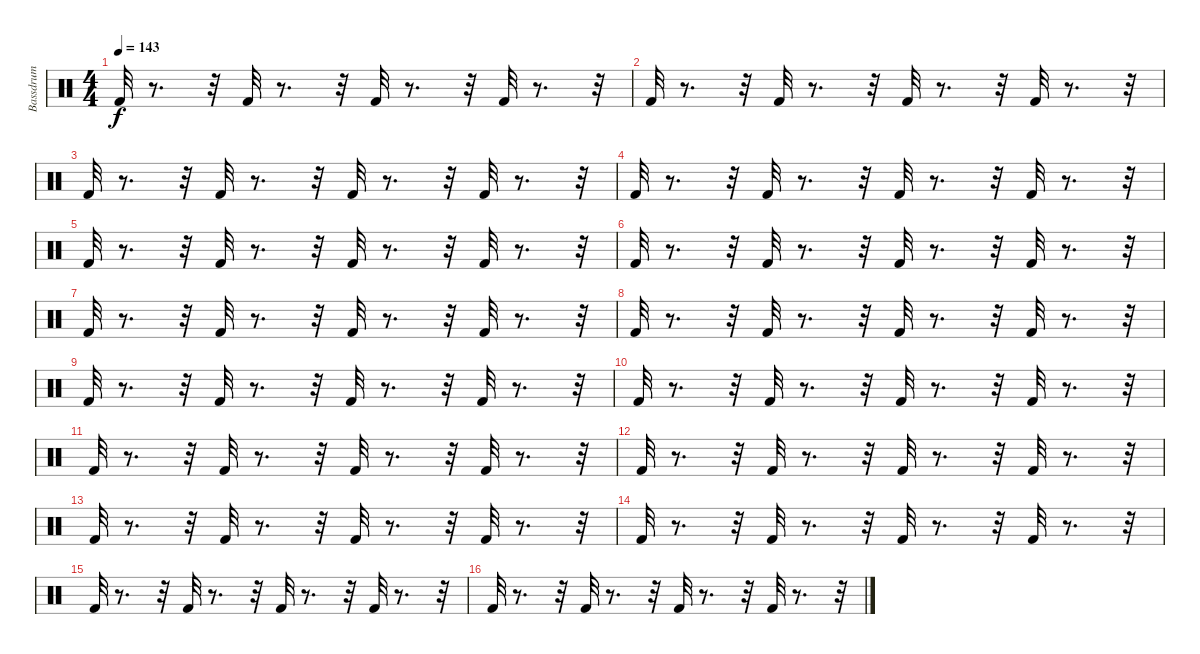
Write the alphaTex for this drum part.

\track ("Bassdrum " "Bassdrum ") {instrument percussion}
\staff {score}
\articulation defaults
\ts (4 4)
\tempo 143
\clef neutral
\ks c "Kick (hit) 2".32{dy f}
r.8{d} r.32 "Kick (hit) 2".32 r.8{d} r.32 "Kick (hit) 2".32 r.8{d} r.32 "Kick (hit) 2".32 r.8{d} r.32 |
"Kick (hit) 2".32 r.8{d} r.32 "Kick (hit) 2".32 r.8{d} r.32 "Kick (hit) 2".32 r.8{d} r.32 "Kick (hit) 2".32 r.8{d} r.32 |
"Kick (hit) 2".32 r.8{d} r.32 "Kick (hit) 2".32 r.8{d} r.32 "Kick (hit) 2".32 r.8{d} r.32 "Kick (hit) 2".32 r.8{d} r.32 |
"Kick (hit) 2".32 r.8{d} r.32 "Kick (hit) 2".32 r.8{d} r.32 "Kick (hit) 2".32 r.8{d} r.32 "Kick (hit) 2".32 r.8{d} r.32 |
"Kick (hit) 2".32 r.8{d} r.32 "Kick (hit) 2".32 r.8{d} r.32 "Kick (hit) 2".32 r.8{d} r.32 "Kick (hit) 2".32 r.8{d} r.32 |
"Kick (hit) 2".32 r.8{d} r.32 "Kick (hit) 2".32 r.8{d} r.32 "Kick (hit) 2".32 r.8{d} r.32 "Kick (hit) 2".32 r.8{d} r.32 |
"Kick (hit) 2".32 r.8{d} r.32 "Kick (hit) 2".32 r.8{d} r.32 "Kick (hit) 2".32 r.8{d} r.32 "Kick (hit) 2".32 r.8{d} r.32 |
"Kick (hit) 2".32 r.8{d} r.32 "Kick (hit) 2".32 r.8{d} r.32 "Kick (hit) 2".32 r.8{d} r.32 "Kick (hit) 2".32 r.8{d} r.32 |
"Kick (hit) 2".32 r.8{d} r.32 "Kick (hit) 2".32 r.8{d} r.32 "Kick (hit) 2".32 r.8{d} r.32 "Kick (hit) 2".32 r.8{d} r.32 |
"Kick (hit) 2".32 r.8{d} r.32 "Kick (hit) 2".32 r.8{d} r.32 "Kick (hit) 2".32 r.8{d} r.32 "Kick (hit) 2".32 r.8{d} r.32 |
"Kick (hit) 2".32 r.8{d} r.32 "Kick (hit) 2".32 r.8{d} r.32 "Kick (hit) 2".32 r.8{d} r.32 "Kick (hit) 2".32 r.8{d} r.32 |
"Kick (hit) 2".32 r.8{d} r.32 "Kick (hit) 2".32 r.8{d} r.32 "Kick (hit) 2".32 r.8{d} r.32 "Kick (hit) 2".32 r.8{d} r.32 |
"Kick (hit) 2".32 r.8{d} r.32 "Kick (hit) 2".32 r.8{d} r.32 "Kick (hit) 2".32 r.8{d} r.32 "Kick (hit) 2".32 r.8{d} r.32 |
"Kick (hit) 2".32 r.8{d} r.32 "Kick (hit) 2".32 r.8{d} r.32 "Kick (hit) 2".32 r.8{d} r.32 "Kick (hit) 2".32 r.8{d} r.32 |
"Kick (hit) 2".32 r.8{d} r.32 "Kick (hit) 2".32 r.8{d} r.32 "Kick (hit) 2".32 r.8{d} r.32 "Kick (hit) 2".32 r.8{d} r.32 |
"Kick (hit) 2".32 r.8{d} r.32 "Kick (hit) 2".32 r.8{d} r.32 "Kick (hit) 2".32 r.8{d} r.32 "Kick (hit) 2".32 r.8{d} r.32
